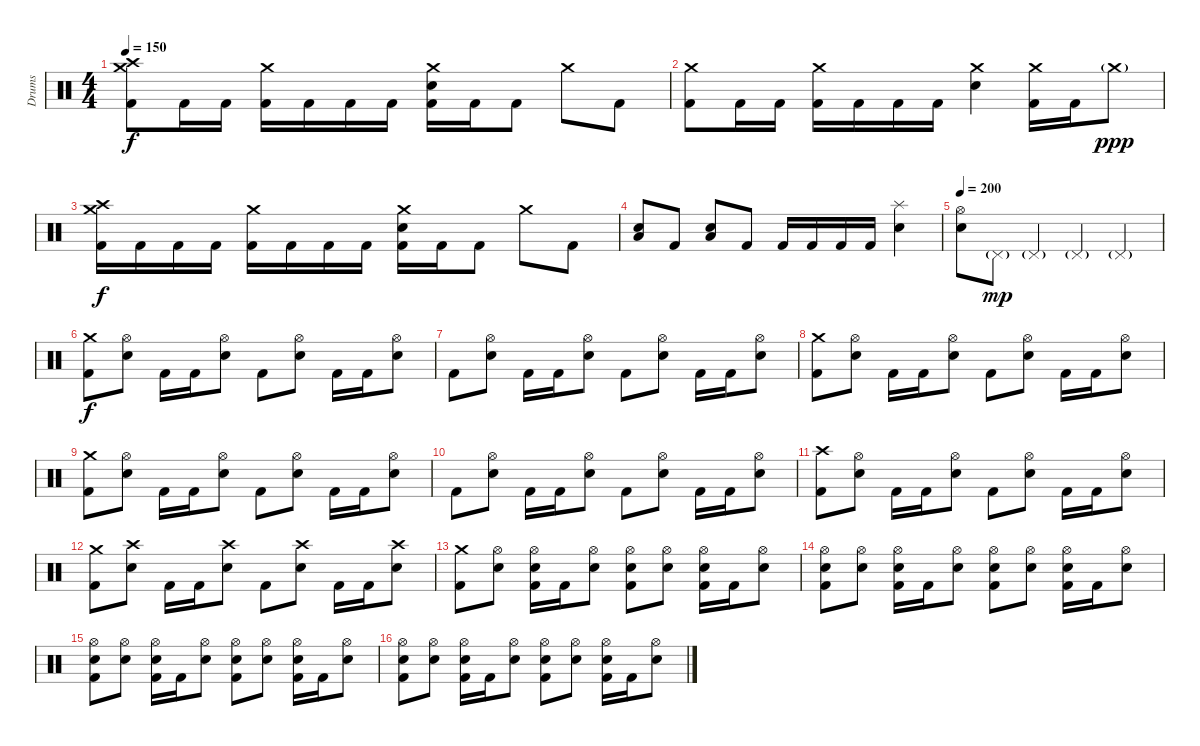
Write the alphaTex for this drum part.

\track ("Drums" "Drums") {instrument percussion}
\staff {score}
\articulation defaults
\ts (4 4)
\tempo 150
\clef neutral
\ks c
("Crash medium (hit)" "Crash high (hit)" "Kick (hit) 2").8{dy f} "Kick (hit) 2".16 "Kick (hit) 2".16 ("Crash medium (hit)" "Kick (hit) 2").16 "Kick (hit) 2".16 "Kick (hit) 2".16 "Kick (hit) 2".16 ("Crash medium (hit)" "Electric Snare (hit)" "Kick (hit) 2").16 "Kick (hit) 2".16 "Kick (hit) 2".8 "Crash medium (hit)".8 "Kick (hit) 2".8 |
("Crash medium (hit)" "Kick (hit) 2").8 "Kick (hit) 2".16 "Kick (hit) 2".16 ("Crash medium (hit)" "Kick (hit) 2").16 "Kick (hit) 2".16 "Kick (hit) 2".16 "Kick (hit) 2".16 ("Crash medium (hit)" "Electric Snare (hit)").4 ("Crash medium (hit)" "Kick (hit) 2").16 "Kick (hit) 2".16 "Crash medium (hit)"{g}.8{dy ppp} |
("Crash high (hit)" "Crash medium (hit)" "Kick (hit) 2").16{dy f} "Kick (hit) 2".16 "Kick (hit) 2".16 "Kick (hit) 2".16 ("Crash medium (hit)" "Kick (hit) 2").16 "Kick (hit) 2".16 "Kick (hit) 2".16 "Kick (hit) 2".16 ("Crash medium (hit)" "Electric Snare (hit)" "Kick (hit) 2").16 "Kick (hit) 2".16 "Kick (hit) 2".8 "Crash medium (hit)".8 "Kick (hit) 2".8 |
("Low Floor Tom (hit)" "Electric Snare (hit)").8 "Kick (hit) 2".8 ("Low Floor Tom (hit)" "Electric Snare (hit)").8 "Kick (hit) 2".8 "Kick (hit) 2".16 "Kick (hit) 2".16 "Kick (hit) 2".16 "Kick (hit) 2".16 ("Splash (hit)" "Electric Snare (hit)").4 |
\tempo 200
("Hi-Hat (open)" "Electric Snare (hit)").8 "Pedal Hi-Hat (hit)"{g}.8{dy mp} "Pedal Hi-Hat (hit)"{g}.4 "Pedal Hi-Hat (hit)"{g}.4 "Pedal Hi-Hat (hit)"{g}.4 |
("Crash medium (hit)" "Kick (hit) 2").8{dy f} ("Hi-Hat (open)" "Electric Snare (hit)").8 "Kick (hit) 2".16 "Kick (hit) 2".16 ("Hi-Hat (open)" "Electric Snare (hit)").8 "Kick (hit) 2".8 ("Hi-Hat (open)" "Electric Snare (hit)").8 "Kick (hit) 2".16 "Kick (hit) 2".16 ("Hi-Hat (open)" "Electric Snare (hit)").8 |
"Kick (hit) 2".8 ("Hi-Hat (open)" "Electric Snare (hit)").8 "Kick (hit) 2".16 "Kick (hit) 2".16 ("Hi-Hat (open)" "Electric Snare (hit)").8 "Kick (hit) 2".8 ("Hi-Hat (open)" "Electric Snare (hit)").8 "Kick (hit) 2".16 "Kick (hit) 2".16 ("Hi-Hat (open)" "Electric Snare (hit)").8 |
("Crash medium (hit)" "Kick (hit) 2").8 ("Hi-Hat (open)" "Electric Snare (hit)").8 "Kick (hit) 2".16 "Kick (hit) 2".16 ("Hi-Hat (open)" "Electric Snare (hit)").8 "Kick (hit) 2".8 ("Hi-Hat (open)" "Electric Snare (hit)").8 "Kick (hit) 2".16 "Kick (hit) 2".16 ("Hi-Hat (open)" "Electric Snare (hit)").8 |
("Crash medium (hit)" "Kick (hit) 2").8 ("Hi-Hat (open)" "Electric Snare (hit)").8 "Kick (hit) 2".16 "Kick (hit) 2".16 ("Hi-Hat (open)" "Electric Snare (hit)").8 "Kick (hit) 2".8 ("Hi-Hat (open)" "Electric Snare (hit)").8 "Kick (hit) 2".16 "Kick (hit) 2".16 ("Hi-Hat (open)" "Electric Snare (hit)").8 |
"Kick (hit) 2".8 ("Hi-Hat (open)" "Electric Snare (hit)").8 "Kick (hit) 2".16 "Kick (hit) 2".16 ("Hi-Hat (open)" "Electric Snare (hit)").8 "Kick (hit) 2".8 ("Hi-Hat (open)" "Electric Snare (hit)").8 "Kick (hit) 2".16 "Kick (hit) 2".16 ("Hi-Hat (open)" "Electric Snare (hit)").8 |
("Crash high (hit)" "Kick (hit) 2").8 ("Hi-Hat (open)" "Electric Snare (hit)").8 "Kick (hit) 2".16 "Kick (hit) 2".16 ("Hi-Hat (open)" "Electric Snare (hit)").8 "Kick (hit) 2".8 ("Hi-Hat (open)" "Electric Snare (hit)").8 "Kick (hit) 2".16 "Kick (hit) 2".16 ("Hi-Hat (open)" "Electric Snare (hit)").8 |
("Crash medium (hit)" "Kick (hit) 2").8 ("Crash high (hit)" "Electric Snare (hit)").8 "Kick (hit) 2".16 "Kick (hit) 2".16 ("Crash high (hit)" "Electric Snare (hit)").8 "Kick (hit) 2".8 ("Crash high (hit)" "Electric Snare (hit)").8 "Kick (hit) 2".16 "Kick (hit) 2".16 ("Crash high (hit)" "Electric Snare (hit)").8 |
("Crash medium (hit)" "Kick (hit) 2").8 ("Hi-Hat (open)" "Electric Snare (hit)").8 ("Hi-Hat (open)" "Electric Snare (hit)" "Kick (hit) 2").16 "Kick (hit) 2".16 ("Hi-Hat (open)" "Electric Snare (hit)").8 ("Hi-Hat (open)" "Electric Snare (hit)" "Kick (hit) 2").8 ("Hi-Hat (open)" "Electric Snare (hit)").8 ("Hi-Hat (open)" "Electric Snare (hit)" "Kick (hit) 2").16 "Kick (hit) 2".16 ("Hi-Hat (open)" "Electric Snare (hit)").8 |
("Hi-Hat (open)" "Electric Snare (hit)" "Kick (hit) 2").8 ("Hi-Hat (open)" "Electric Snare (hit)").8 ("Hi-Hat (open)" "Electric Snare (hit)" "Kick (hit) 2").16 "Kick (hit) 2".16 ("Hi-Hat (open)" "Electric Snare (hit)").8 ("Hi-Hat (open)" "Electric Snare (hit)" "Kick (hit) 2").8 ("Hi-Hat (open)" "Electric Snare (hit)").8 ("Hi-Hat (open)" "Electric Snare (hit)" "Kick (hit) 2").16 "Kick (hit) 2".16 ("Hi-Hat (open)" "Electric Snare (hit)").8 |
("Hi-Hat (open)" "Electric Snare (hit)" "Kick (hit) 2").8 ("Hi-Hat (open)" "Electric Snare (hit)").8 ("Hi-Hat (open)" "Electric Snare (hit)" "Kick (hit) 2").16 "Kick (hit) 2".16 ("Hi-Hat (open)" "Electric Snare (hit)").8 ("Hi-Hat (open)" "Electric Snare (hit)" "Kick (hit) 2").8 ("Hi-Hat (open)" "Electric Snare (hit)").8 ("Hi-Hat (open)" "Electric Snare (hit)" "Kick (hit) 2").16 "Kick (hit) 2".16 ("Hi-Hat (open)" "Electric Snare (hit)").8 |
("Hi-Hat (open)" "Electric Snare (hit)" "Kick (hit) 2").8 ("Hi-Hat (open)" "Electric Snare (hit)").8 ("Hi-Hat (open)" "Electric Snare (hit)" "Kick (hit) 2").16 "Kick (hit) 2".16 ("Hi-Hat (open)" "Electric Snare (hit)").8 ("Hi-Hat (open)" "Electric Snare (hit)" "Kick (hit) 2").8 ("Hi-Hat (open)" "Electric Snare (hit)").8 ("Hi-Hat (open)" "Electric Snare (hit)" "Kick (hit) 2").16 "Kick (hit) 2".16 ("Hi-Hat (open)" "Electric Snare (hit)").8
